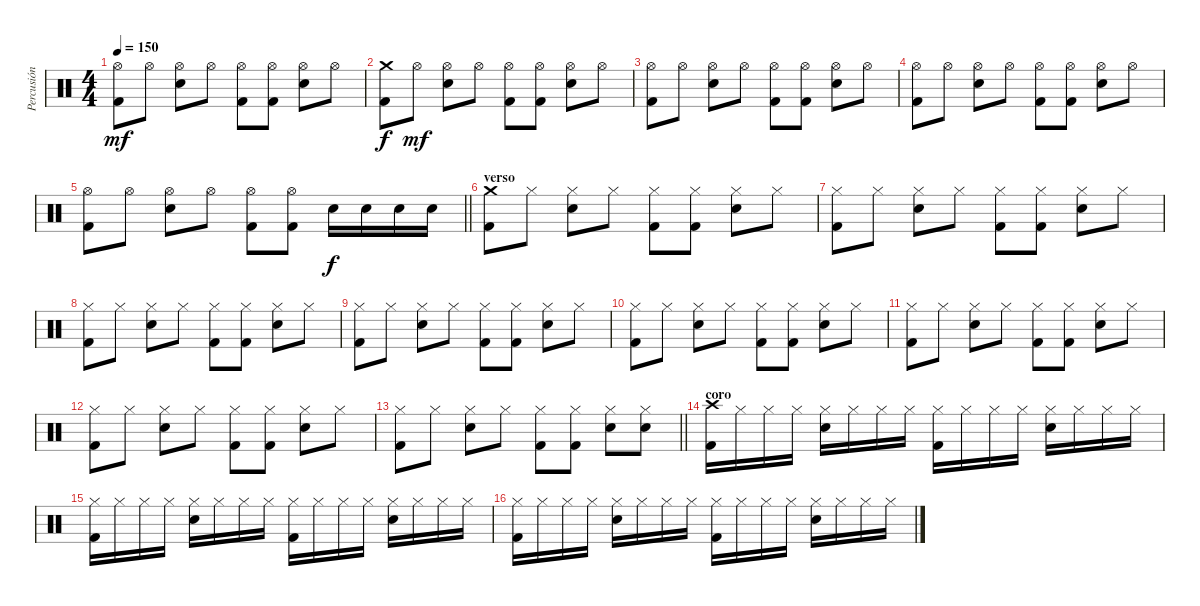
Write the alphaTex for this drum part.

\track ("Percusión" "Percusión") {instrument percussion}
\staff {score}
\articulation defaults
\ts (4 4)
\tempo 150
\clef neutral
\ks c
("Hi-Hat (open)" "Kick (hit) 2").8{dy mf} "Hi-Hat (open)".8 ("Hi-Hat (open)" "Electric Snare (hit)").8 "Hi-Hat (open)".8 ("Hi-Hat (open)" "Kick (hit) 2").8 ("Hi-Hat (open)" "Kick (hit) 2").8 ("Hi-Hat (open)" "Electric Snare (hit)").8 "Hi-Hat (open)".8 |
("Crash medium (hit)" "Kick (hit) 2").8{dy f} "Hi-Hat (open)".8{dy mf} ("Hi-Hat (open)" "Electric Snare (hit)").8 "Hi-Hat (open)".8 ("Hi-Hat (open)" "Kick (hit) 2").8 ("Hi-Hat (open)" "Kick (hit) 2").8 ("Hi-Hat (open)" "Electric Snare (hit)").8 "Hi-Hat (open)".8 |
("Hi-Hat (open)" "Kick (hit) 2").8 "Hi-Hat (open)".8 ("Hi-Hat (open)" "Electric Snare (hit)").8 "Hi-Hat (open)".8 ("Hi-Hat (open)" "Kick (hit) 2").8 ("Hi-Hat (open)" "Kick (hit) 2").8 ("Hi-Hat (open)" "Electric Snare (hit)").8 "Hi-Hat (open)".8 |
("Hi-Hat (open)" "Kick (hit) 2").8 "Hi-Hat (open)".8 ("Hi-Hat (open)" "Electric Snare (hit)").8 "Hi-Hat (open)".8 ("Hi-Hat (open)" "Kick (hit) 2").8 ("Hi-Hat (open)" "Kick (hit) 2").8 ("Hi-Hat (open)" "Electric Snare (hit)").8 "Hi-Hat (open)".8 |
\barLineRight lightlight
("Hi-Hat (open)" "Kick (hit) 2").8 "Hi-Hat (open)".8 ("Hi-Hat (open)" "Electric Snare (hit)").8 "Hi-Hat (open)".8 ("Hi-Hat (open)" "Kick (hit) 2").8 ("Hi-Hat (open)" "Kick (hit) 2").8 "Electric Snare (hit)".16{dy f} "Electric Snare (hit)".16 "Electric Snare (hit)".16 "Electric Snare (hit)".16 |
\section ("" "verso")
("Crash medium (hit)" "Kick (hit) 2").8 "Hi-Hat (closed)".8 ("Hi-Hat (closed)" "Electric Snare (hit)").8 "Hi-Hat (closed)".8 ("Hi-Hat (closed)" "Kick (hit) 2").8 ("Hi-Hat (closed)" "Kick (hit) 2").8 ("Hi-Hat (closed)" "Electric Snare (hit)").8 "Hi-Hat (closed)".8 |
("Hi-Hat (closed)" "Kick (hit) 2").8 "Hi-Hat (closed)".8 ("Hi-Hat (closed)" "Electric Snare (hit)").8 "Hi-Hat (closed)".8 ("Hi-Hat (closed)" "Kick (hit) 2").8 ("Hi-Hat (closed)" "Kick (hit) 2").8 ("Hi-Hat (closed)" "Electric Snare (hit)").8 "Hi-Hat (closed)".8 |
("Hi-Hat (closed)" "Kick (hit) 2").8 "Hi-Hat (closed)".8 ("Hi-Hat (closed)" "Electric Snare (hit)").8 "Hi-Hat (closed)".8 ("Hi-Hat (closed)" "Kick (hit) 2").8 ("Hi-Hat (closed)" "Kick (hit) 2").8 ("Hi-Hat (closed)" "Electric Snare (hit)").8 "Hi-Hat (closed)".8 |
("Hi-Hat (closed)" "Kick (hit) 2").8 "Hi-Hat (closed)".8 ("Hi-Hat (closed)" "Electric Snare (hit)").8 "Hi-Hat (closed)".8 ("Hi-Hat (closed)" "Kick (hit) 2").8 ("Hi-Hat (closed)" "Kick (hit) 2").8 ("Hi-Hat (closed)" "Electric Snare (hit)").8 "Hi-Hat (closed)".8 |
("Hi-Hat (closed)" "Kick (hit) 2").8 "Hi-Hat (closed)".8 ("Hi-Hat (closed)" "Electric Snare (hit)").8 "Hi-Hat (closed)".8 ("Hi-Hat (closed)" "Kick (hit) 2").8 ("Hi-Hat (closed)" "Kick (hit) 2").8 ("Hi-Hat (closed)" "Electric Snare (hit)").8 "Hi-Hat (closed)".8 |
("Hi-Hat (closed)" "Kick (hit) 2").8 "Hi-Hat (closed)".8 ("Hi-Hat (closed)" "Electric Snare (hit)").8 "Hi-Hat (closed)".8 ("Hi-Hat (closed)" "Kick (hit) 2").8 ("Hi-Hat (closed)" "Kick (hit) 2").8 ("Hi-Hat (closed)" "Electric Snare (hit)").8 "Hi-Hat (closed)".8 |
("Hi-Hat (closed)" "Kick (hit) 2").8 "Hi-Hat (closed)".8 ("Hi-Hat (closed)" "Electric Snare (hit)").8 "Hi-Hat (closed)".8 ("Hi-Hat (closed)" "Kick (hit) 2").8 ("Hi-Hat (closed)" "Kick (hit) 2").8 ("Hi-Hat (closed)" "Electric Snare (hit)").8 "Hi-Hat (closed)".8 |
\barLineRight lightlight
("Hi-Hat (closed)" "Kick (hit) 2").8 "Hi-Hat (closed)".8 ("Hi-Hat (closed)" "Electric Snare (hit)").8 "Hi-Hat (closed)".8 ("Hi-Hat (closed)" "Kick (hit) 2").8 ("Hi-Hat (closed)" "Kick (hit) 2").8 ("Hi-Hat (closed)" "Electric Snare (hit)").8 ("Hi-Hat (closed)" "Electric Snare (hit)").8 |
\section ("" "coro")
("Crash high (hit)" "Kick (hit) 2").16 "Hi-Hat (closed)".16 "Hi-Hat (closed)".16 "Hi-Hat (closed)".16 ("Hi-Hat (closed)" "Electric Snare (hit)").16 "Hi-Hat (closed)".16 "Hi-Hat (closed)".16 "Hi-Hat (closed)".16 ("Hi-Hat (closed)" "Kick (hit) 2").16 "Hi-Hat (closed)".16 "Hi-Hat (closed)".16 "Hi-Hat (closed)".16 ("Hi-Hat (closed)" "Electric Snare (hit)").16 "Hi-Hat (closed)".16 "Hi-Hat (closed)".16 "Hi-Hat (closed)".16 |
("Hi-Hat (closed)" "Kick (hit) 2").16 "Hi-Hat (closed)".16 "Hi-Hat (closed)".16 "Hi-Hat (closed)".16 ("Hi-Hat (closed)" "Electric Snare (hit)").16 "Hi-Hat (closed)".16 "Hi-Hat (closed)".16 "Hi-Hat (closed)".16 ("Hi-Hat (closed)" "Kick (hit) 2").16 "Hi-Hat (closed)".16 "Hi-Hat (closed)".16 "Hi-Hat (closed)".16 ("Hi-Hat (closed)" "Electric Snare (hit)").16 "Hi-Hat (closed)".16 "Hi-Hat (closed)".16 "Hi-Hat (closed)".16 |
("Hi-Hat (closed)" "Kick (hit) 2").16 "Hi-Hat (closed)".16 "Hi-Hat (closed)".16 "Hi-Hat (closed)".16 ("Hi-Hat (closed)" "Electric Snare (hit)").16 "Hi-Hat (closed)".16 "Hi-Hat (closed)".16 "Hi-Hat (closed)".16 ("Hi-Hat (closed)" "Kick (hit) 2").16 "Hi-Hat (closed)".16 "Hi-Hat (closed)".16 "Hi-Hat (closed)".16 ("Hi-Hat (closed)" "Electric Snare (hit)").16 "Hi-Hat (closed)".16 "Hi-Hat (closed)".16 "Hi-Hat (closed)".16
